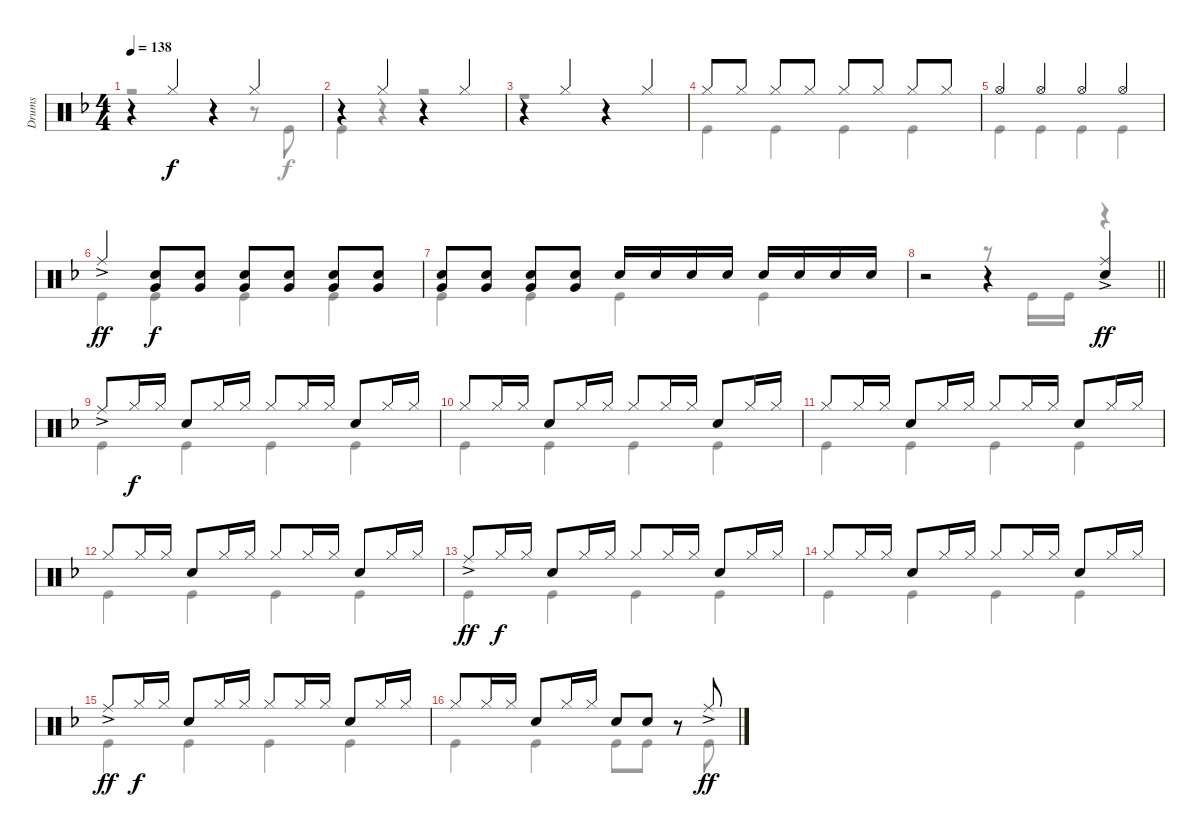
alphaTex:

\track ("Drums" "Drums") {instrument percussion}
\staff {score}
\articulation defaults
\voice
\ts (4 4)
\tempo 138
\clef neutral
\ks f
r.4{dy f} "Hi-Hat (closed)".4 r.4 "Hi-Hat (closed)".4 |
r.4 "Hi-Hat (closed)".4 r.4 "Hi-Hat (closed)".4 |
r.4 "Hi-Hat (closed)".4 r.4 "Hi-Hat (closed)".4 |
"Hi-Hat (closed)".8 "Hi-Hat (closed)".8 "Hi-Hat (closed)".8 "Hi-Hat (closed)".8 "Hi-Hat (closed)".8 "Hi-Hat (closed)".8 "Hi-Hat (closed)".8 "Hi-Hat (closed)".8 |
"Hi-Hat (open)".4 "Hi-Hat (open)".4 "Hi-Hat (open)".4 "Hi-Hat (open)".4 |
"Ride (middle)"{ac}.4{dy ff} ("Snare (hit) 2" "Very Low Tom (hit)").8{dy f} ("Snare (hit) 2" "Very Low Tom (hit)").8 ("Snare (hit) 2" "Very Low Tom (hit)").8 ("Snare (hit) 2" "Very Low Tom (hit)").8 ("Snare (hit) 2" "Very Low Tom (hit)").8 ("Snare (hit) 2" "Very Low Tom (hit)").8 |
("Snare (hit) 2" "Very Low Tom (hit)").8 ("Snare (hit) 2" "Very Low Tom (hit)").8 ("Snare (hit) 2" "Very Low Tom (hit)").8 ("Snare (hit) 2" "Very Low Tom (hit)").8 "Snare (hit) 2".16 "Snare (hit) 2".16 "Snare (hit) 2".16 "Snare (hit) 2".16 "Snare (hit) 2".16 "Snare (hit) 2".16 "Snare (hit) 2".16 "Snare (hit) 2".16 |
\barLineRight lightlight
r.2 r.4 ("Ride (middle)"{ac} "Snare (hit) 2").4{dy ff} |
"Ride (middle)"{ac}.8 "Hi-Hat (closed)".16{dy f} "Hi-Hat (closed)".16 "Snare (hit) 2".8 "Hi-Hat (closed)".16 "Hi-Hat (closed)".16 "Hi-Hat (closed)".8 "Hi-Hat (closed)".16 "Hi-Hat (closed)".16 "Snare (hit) 2".8 "Hi-Hat (closed)".16 "Hi-Hat (closed)".16 |
"Hi-Hat (closed)".8 "Hi-Hat (closed)".16 "Hi-Hat (closed)".16 "Snare (hit) 2".8 "Hi-Hat (closed)".16 "Hi-Hat (closed)".16 "Hi-Hat (closed)".8 "Hi-Hat (closed)".16 "Hi-Hat (closed)".16 "Snare (hit) 2".8 "Hi-Hat (closed)".16 "Hi-Hat (closed)".16 |
"Hi-Hat (closed)".8 "Hi-Hat (closed)".16 "Hi-Hat (closed)".16 "Snare (hit) 2".8 "Hi-Hat (closed)".16 "Hi-Hat (closed)".16 "Hi-Hat (closed)".8 "Hi-Hat (closed)".16 "Hi-Hat (closed)".16 "Snare (hit) 2".8 "Hi-Hat (closed)".16 "Hi-Hat (closed)".16 |
"Hi-Hat (closed)".8 "Hi-Hat (closed)".16 "Hi-Hat (closed)".16 "Snare (hit) 2".8 "Hi-Hat (closed)".16 "Hi-Hat (closed)".16 "Hi-Hat (closed)".8 "Hi-Hat (closed)".16 "Hi-Hat (closed)".16 "Snare (hit) 2".8 "Hi-Hat (closed)".16 "Hi-Hat (closed)".16 |
"Ride (middle)"{ac}.8{dy ff} "Hi-Hat (closed)".16{dy f} "Hi-Hat (closed)".16 "Snare (hit) 2".8 "Hi-Hat (closed)".16 "Hi-Hat (closed)".16 "Hi-Hat (closed)".8 "Hi-Hat (closed)".16 "Hi-Hat (closed)".16 "Snare (hit) 2".8 "Hi-Hat (closed)".16 "Hi-Hat (closed)".16 |
"Hi-Hat (closed)".8 "Hi-Hat (closed)".16 "Hi-Hat (closed)".16 "Snare (hit) 2".8 "Hi-Hat (closed)".16 "Hi-Hat (closed)".16 "Hi-Hat (closed)".8 "Hi-Hat (closed)".16 "Hi-Hat (closed)".16 "Snare (hit) 2".8 "Hi-Hat (closed)".16 "Hi-Hat (closed)".16 |
"Ride (middle)"{ac}.8{dy ff} "Hi-Hat (closed)".16{dy f} "Hi-Hat (closed)".16 "Snare (hit) 2".8 "Hi-Hat (closed)".16 "Hi-Hat (closed)".16 "Hi-Hat (closed)".8 "Hi-Hat (closed)".16 "Hi-Hat (closed)".16 "Snare (hit) 2".8 "Hi-Hat (closed)".16 "Hi-Hat (closed)".16 |
"Hi-Hat (closed)".8 "Hi-Hat (closed)".16 "Hi-Hat (closed)".16 "Snare (hit) 2".8 "Hi-Hat (closed)".16 "Hi-Hat (closed)".16 "Snare (hit) 2".8 "Snare (hit) 2".8 r.8 "Ride (middle)"{ac}.8{dy ff}
\voice
\clef neutral
\ottava regular
\simile none
\ks f
r.2{dy f} r.4 r.8 "Kick (hit)".8 |
"Kick (hit)".4 r.4 r.2 |
r.1 |
"Kick (hit)".4 "Kick (hit)".4 "Kick (hit)".4 "Kick (hit)".4 |
"Kick (hit)".4 "Kick (hit)".4 "Kick (hit)".4 "Kick (hit)".4 |
"Kick (hit)".4 "Kick (hit)".4 "Kick (hit)".4 "Kick (hit)".4 |
"Kick (hit)".4 "Kick (hit)".4 "Kick (hit)".4 "Kick (hit)".4 |
\barLineRight lightlight
r.2 r.8 "Kick (hit)".16 "Kick (hit)".16 r.4 |
"Kick (hit)".4 "Kick (hit)".4 "Kick (hit)".4 "Kick (hit)".4 |
"Kick (hit)".4 "Kick (hit)".4 "Kick (hit)".4 "Kick (hit)".4 |
"Kick (hit)".4 "Kick (hit)".4 "Kick (hit)".4 "Kick (hit)".4 |
"Kick (hit)".4 "Kick (hit)".4 "Kick (hit)".4 "Kick (hit)".4 |
"Kick (hit)".4 "Kick (hit)".4 "Kick (hit)".4 "Kick (hit)".4 |
"Kick (hit)".4 "Kick (hit)".4 "Kick (hit)".4 "Kick (hit)".4 |
"Kick (hit)".4 "Kick (hit)".4 "Kick (hit)".4 "Kick (hit)".4 |
"Kick (hit)".4 "Kick (hit)".4 "Kick (hit)".8 "Kick (hit)".8 r.8 "Kick (hit)".8
